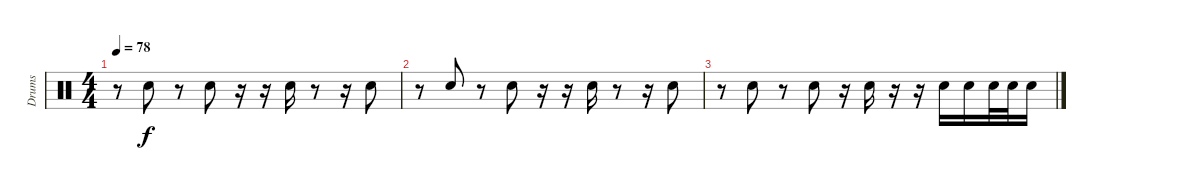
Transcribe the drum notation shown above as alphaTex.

\track ("Drums" "Drums") {instrument percussion}
\staff {score}
\articulation defaults
\ts (4 4)
\tempo 78
\clef neutral
\ks c
r.8{dy f} "Snare (hit) 2".8 r.8 "Snare (hit) 2".8 r.16 r.16 "Snare (hit) 2".16 r.8 r.16 "Snare (hit) 2".8 |
r.8{beam Up} "Snare (hit) 2".8{beam Up} r.8 "Snare (hit) 2".8 r.16 r.16 "Snare (hit) 2".16 r.8 r.16 "Snare (hit) 2".8 |
r.8 "Snare (hit) 2".8 r.8 "Snare (hit) 2".8 r.16 "Snare (hit) 2".16 r.16 r.16 "Snare (hit) 2".16 "Snare (hit) 2".16 "Snare (hit) 2".32 "Snare (hit) 2".32 "Snare (hit) 2".16
